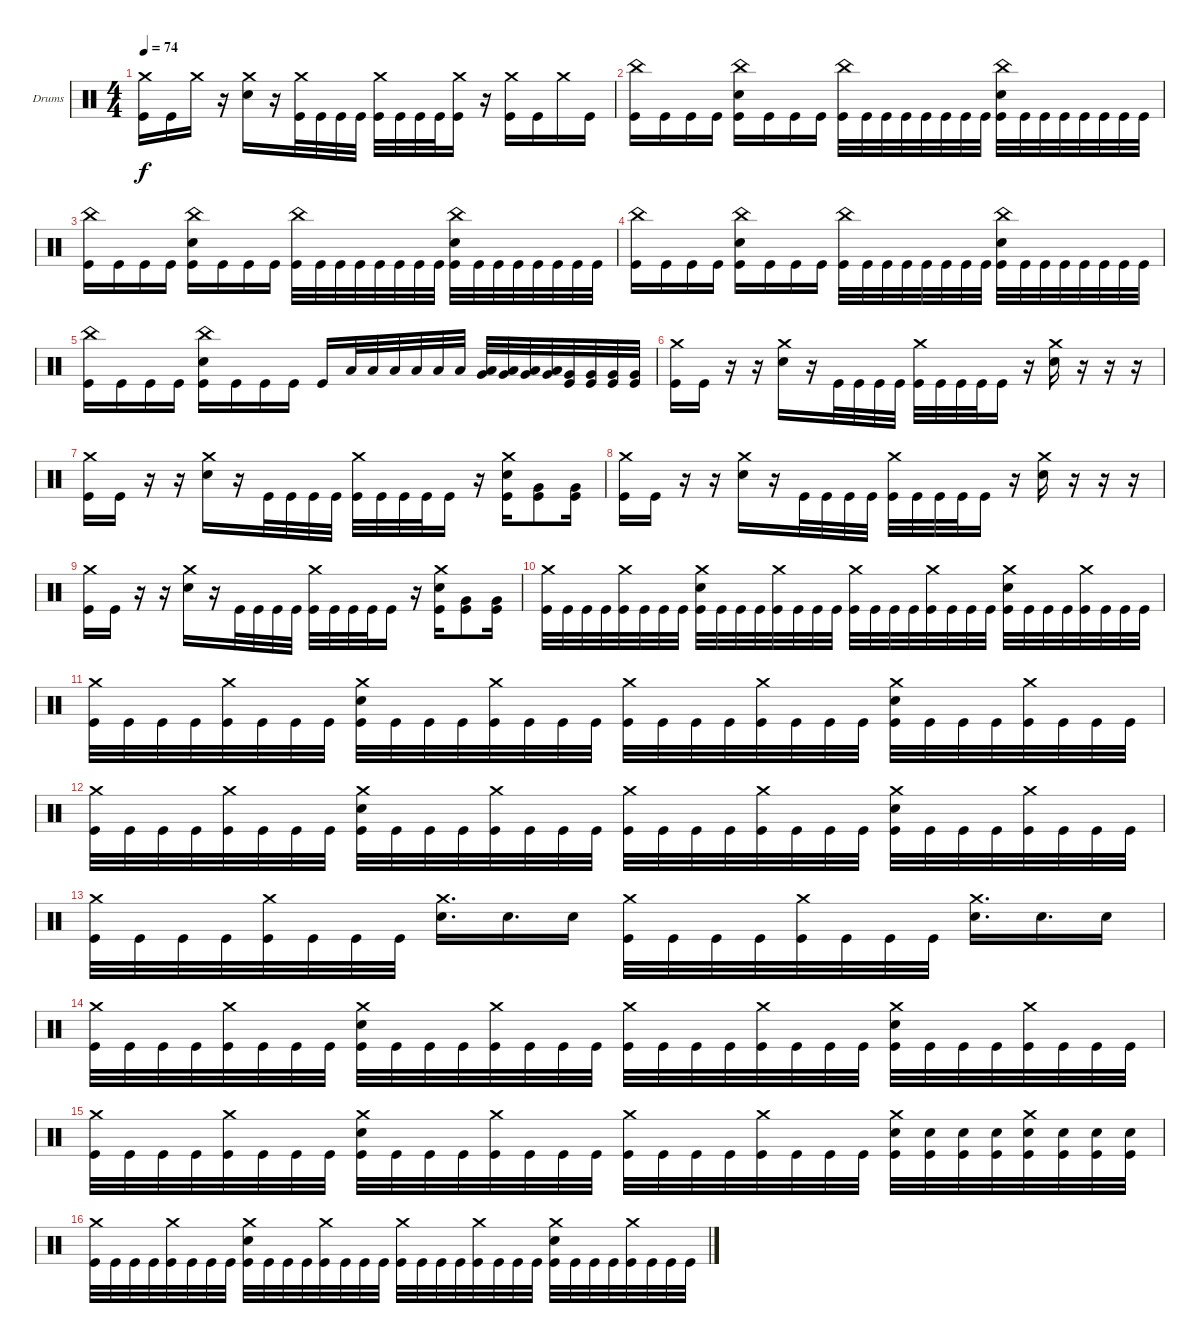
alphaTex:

\bracketExtendMode groupsimilarinstruments
\firstSystemTrackNameOrientation horizontal
\otherSystemsTrackNameOrientation horizontal
\track ("Drumkit" "Drums") {instrument percussion}
\staff {score}
\articulation defaults
\ts (4 4)
\tempo 74
\clef neutral
\ks c
("Crash medium (hit)" "Kick (hit)").16{dy f} "Kick (hit)".16 "Crash medium (hit)".16 r.16 ("Crash medium (hit)" "Snare (hit) 2").16 r.16 ("Crash medium (hit)" "Kick (hit)").32 "Kick (hit)".32 "Kick (hit)".32 "Kick (hit)".32 ("Crash medium (hit)" "Kick (hit)").32 "Kick (hit)".32 "Kick (hit)".32 "Kick (hit)".32 ("Crash medium (hit)" "Kick (hit)").16 r.16 ("Crash medium (hit)" "Kick (hit)").16 "Kick (hit)".16 "Crash medium (hit)".16 "Kick (hit)".16 |
("China (hit)" "Kick (hit)").16 "Kick (hit)".16 "Kick (hit)".16 "Kick (hit)".16 ("China (hit)" "Snare (hit) 2" "Kick (hit)").16 "Kick (hit)".16 "Kick (hit)".16 "Kick (hit)".16 ("China (hit)" "Kick (hit)").32 "Kick (hit)".32 "Kick (hit)".32 "Kick (hit)".32 "Kick (hit)".32 "Kick (hit)".32 "Kick (hit)".32 "Kick (hit)".32 ("China (hit)" "Snare (hit) 2" "Kick (hit)").32 "Kick (hit)".32 "Kick (hit)".32 "Kick (hit)".32 "Kick (hit)".32 "Kick (hit)".32 "Kick (hit)".32 "Kick (hit)".32 |
("China (hit)" "Kick (hit)").16 "Kick (hit)".16 "Kick (hit)".16 "Kick (hit)".16 ("China (hit)" "Snare (hit) 2" "Kick (hit)").16 "Kick (hit)".16 "Kick (hit)".16 "Kick (hit)".16 ("China (hit)" "Kick (hit)").32 "Kick (hit)".32 "Kick (hit)".32 "Kick (hit)".32 "Kick (hit)".32 "Kick (hit)".32 "Kick (hit)".32 "Kick (hit)".32 ("China (hit)" "Snare (hit) 2" "Kick (hit)").32 "Kick (hit)".32 "Kick (hit)".32 "Kick (hit)".32 "Kick (hit)".32 "Kick (hit)".32 "Kick (hit)".32 "Kick (hit)".32 |
("China (hit)" "Kick (hit)").16 "Kick (hit)".16 "Kick (hit)".16 "Kick (hit)".16 ("China (hit)" "Snare (hit) 2" "Kick (hit)").16 "Kick (hit)".16 "Kick (hit)".16 "Kick (hit)".16 ("China (hit)" "Kick (hit)").32 "Kick (hit)".32 "Kick (hit)".32 "Kick (hit)".32 "Kick (hit)".32 "Kick (hit)".32 "Kick (hit)".32 "Kick (hit)".32 ("China (hit)" "Snare (hit) 2" "Kick (hit)").32 "Kick (hit)".32 "Kick (hit)".32 "Kick (hit)".32 "Kick (hit)".32 "Kick (hit)".32 "Kick (hit)".32 "Kick (hit)".32 |
("China (hit)" "Kick (hit)").16 "Kick (hit)".16 "Kick (hit)".16 "Kick (hit)".16 ("China (hit)" "Snare (hit) 2" "Kick (hit)").16 "Kick (hit)".16 "Kick (hit)".16 "Kick (hit)".16 "Kick (hit)".16 "Low Tom (hit)".32 "Low Tom (hit)".32 "Low Tom (hit)".32 "Low Tom (hit)".32 "Low Tom (hit)".32 "Low Tom (hit)".32 ("Low Tom (hit)" "Very Low Tom (hit)").32 ("Low Tom (hit)" "Very Low Tom (hit)").32 ("Low Tom (hit)" "Very Low Tom (hit)").32 ("Low Tom (hit)" "Very Low Tom (hit)").32 ("Very Low Tom (hit)" "Kick (hit)").32 ("Very Low Tom (hit)" "Kick (hit)").32 ("Very Low Tom (hit)" "Kick (hit)").32 ("Very Low Tom (hit)" "Kick (hit)").32 |
("Crash medium (hit)" "Kick (hit)").16 "Kick (hit)".16 r.16 r.16 ("Crash medium (hit)" "Snare (hit) 2").16 r.16 "Kick (hit)".32 "Kick (hit)".32 "Kick (hit)".32 "Kick (hit)".32 ("Crash medium (hit)" "Kick (hit)").32 "Kick (hit)".32 "Kick (hit)".32 "Kick (hit)".32 "Kick (hit)".16 r.16 ("Crash medium (hit)" "Snare (hit) 2").16 r.16 r.16 r.16 |
("Crash medium (hit)" "Kick (hit)").16 "Kick (hit)".16 r.16 r.16 ("Crash medium (hit)" "Snare (hit) 2").16 r.16 "Kick (hit)".32 "Kick (hit)".32 "Kick (hit)".32 "Kick (hit)".32 ("Crash medium (hit)" "Kick (hit)").32 "Kick (hit)".32 "Kick (hit)".32 "Kick (hit)".32 "Kick (hit)".16 r.16 ("Crash medium (hit)" "Snare (hit) 2" "Kick (hit)").16 ("Very Low Tom (hit)" "Kick (hit)").8 ("Very Low Tom (hit)" "Kick (hit)").16 |
("Crash medium (hit)" "Kick (hit)").16 "Kick (hit)".16 r.16 r.16 ("Crash medium (hit)" "Snare (hit) 2").16 r.16 "Kick (hit)".32 "Kick (hit)".32 "Kick (hit)".32 "Kick (hit)".32 ("Crash medium (hit)" "Kick (hit)").32 "Kick (hit)".32 "Kick (hit)".32 "Kick (hit)".32 "Kick (hit)".16 r.16 ("Crash medium (hit)" "Snare (hit) 2").16 r.16 r.16 r.16 |
("Crash medium (hit)" "Kick (hit)").16 "Kick (hit)".16 r.16 r.16 ("Crash medium (hit)" "Snare (hit) 2").16 r.16 "Kick (hit)".32 "Kick (hit)".32 "Kick (hit)".32 "Kick (hit)".32 ("Crash medium (hit)" "Kick (hit)").32 "Kick (hit)".32 "Kick (hit)".32 "Kick (hit)".32 "Kick (hit)".16 r.16 ("Crash medium (hit)" "Snare (hit) 2" "Kick (hit)").16 ("Very Low Tom (hit)" "Kick (hit)").8 ("Very Low Tom (hit)" "Kick (hit)").16 |
("Crash medium (hit)" "Kick (hit)").32 "Kick (hit)".32 "Kick (hit)".32 "Kick (hit)".32 ("Crash medium (hit)" "Kick (hit)").32 "Kick (hit)".32 "Kick (hit)".32 "Kick (hit)".32 ("Crash medium (hit)" "Snare (hit) 2" "Kick (hit)").32 "Kick (hit)".32 "Kick (hit)".32 "Kick (hit)".32 ("Crash medium (hit)" "Kick (hit)").32 "Kick (hit)".32 "Kick (hit)".32 "Kick (hit)".32 ("Crash medium (hit)" "Kick (hit)").32 "Kick (hit)".32 "Kick (hit)".32 "Kick (hit)".32 ("Crash medium (hit)" "Kick (hit)").32 "Kick (hit)".32 "Kick (hit)".32 "Kick (hit)".32 ("Crash medium (hit)" "Snare (hit) 2" "Kick (hit)").32 "Kick (hit)".32 "Kick (hit)".32 "Kick (hit)".32 ("Crash medium (hit)" "Kick (hit)").32 "Kick (hit)".32 "Kick (hit)".32 "Kick (hit)".32 |
("Crash medium (hit)" "Kick (hit)").32 "Kick (hit)".32 "Kick (hit)".32 "Kick (hit)".32 ("Crash medium (hit)" "Kick (hit)").32 "Kick (hit)".32 "Kick (hit)".32 "Kick (hit)".32 ("Crash medium (hit)" "Snare (hit) 2" "Kick (hit)").32 "Kick (hit)".32 "Kick (hit)".32 "Kick (hit)".32 ("Crash medium (hit)" "Kick (hit)").32 "Kick (hit)".32 "Kick (hit)".32 "Kick (hit)".32 ("Crash medium (hit)" "Kick (hit)").32 "Kick (hit)".32 "Kick (hit)".32 "Kick (hit)".32 ("Crash medium (hit)" "Kick (hit)").32 "Kick (hit)".32 "Kick (hit)".32 "Kick (hit)".32 ("Crash medium (hit)" "Snare (hit) 2" "Kick (hit)").32 "Kick (hit)".32 "Kick (hit)".32 "Kick (hit)".32 ("Crash medium (hit)" "Kick (hit)").32 "Kick (hit)".32 "Kick (hit)".32 "Kick (hit)".32 |
("Crash medium (hit)" "Kick (hit)").32 "Kick (hit)".32 "Kick (hit)".32 "Kick (hit)".32 ("Crash medium (hit)" "Kick (hit)").32 "Kick (hit)".32 "Kick (hit)".32 "Kick (hit)".32 ("Crash medium (hit)" "Snare (hit) 2" "Kick (hit)").32 "Kick (hit)".32 "Kick (hit)".32 "Kick (hit)".32 ("Crash medium (hit)" "Kick (hit)").32 "Kick (hit)".32 "Kick (hit)".32 "Kick (hit)".32 ("Crash medium (hit)" "Kick (hit)").32 "Kick (hit)".32 "Kick (hit)".32 "Kick (hit)".32 ("Crash medium (hit)" "Kick (hit)").32 "Kick (hit)".32 "Kick (hit)".32 "Kick (hit)".32 ("Crash medium (hit)" "Snare (hit) 2" "Kick (hit)").32 "Kick (hit)".32 "Kick (hit)".32 "Kick (hit)".32 ("Crash medium (hit)" "Kick (hit)").32 "Kick (hit)".32 "Kick (hit)".32 "Kick (hit)".32 |
("Crash medium (hit)" "Kick (hit)").32 "Kick (hit)".32 "Kick (hit)".32 "Kick (hit)".32 ("Crash medium (hit)" "Kick (hit)").32 "Kick (hit)".32 "Kick (hit)".32 "Kick (hit)".32 ("Crash medium (hit)" "Snare (hit) 2").16{d} "Snare (hit) 2".16{d} "Snare (hit) 2".16 ("Crash medium (hit)" "Kick (hit)").32 "Kick (hit)".32 "Kick (hit)".32 "Kick (hit)".32 ("Crash medium (hit)" "Kick (hit)").32 "Kick (hit)".32 "Kick (hit)".32 "Kick (hit)".32 ("Crash medium (hit)" "Snare (hit) 2").16{d} "Snare (hit) 2".16{d} "Snare (hit) 2".16 |
("Crash medium (hit)" "Kick (hit)").32 "Kick (hit)".32 "Kick (hit)".32 "Kick (hit)".32 ("Crash medium (hit)" "Kick (hit)").32 "Kick (hit)".32 "Kick (hit)".32 "Kick (hit)".32 ("Crash medium (hit)" "Snare (hit) 2" "Kick (hit)").32 "Kick (hit)".32 "Kick (hit)".32 "Kick (hit)".32 ("Crash medium (hit)" "Kick (hit)").32 "Kick (hit)".32 "Kick (hit)".32 "Kick (hit)".32 ("Crash medium (hit)" "Kick (hit)").32 "Kick (hit)".32 "Kick (hit)".32 "Kick (hit)".32 ("Crash medium (hit)" "Kick (hit)").32 "Kick (hit)".32 "Kick (hit)".32 "Kick (hit)".32 ("Crash medium (hit)" "Snare (hit) 2" "Kick (hit)").32 "Kick (hit)".32 "Kick (hit)".32 "Kick (hit)".32 ("Crash medium (hit)" "Kick (hit)").32 "Kick (hit)".32 "Kick (hit)".32 "Kick (hit)".32 |
("Crash medium (hit)" "Kick (hit)").32 "Kick (hit)".32 "Kick (hit)".32 "Kick (hit)".32 ("Crash medium (hit)" "Kick (hit)").32 "Kick (hit)".32 "Kick (hit)".32 "Kick (hit)".32 ("Crash medium (hit)" "Snare (hit) 2" "Kick (hit)").32 "Kick (hit)".32 "Kick (hit)".32 "Kick (hit)".32 ("Crash medium (hit)" "Kick (hit)").32 "Kick (hit)".32 "Kick (hit)".32 "Kick (hit)".32 ("Crash medium (hit)" "Kick (hit)").32 "Kick (hit)".32 "Kick (hit)".32 "Kick (hit)".32 ("Crash medium (hit)" "Kick (hit)").32 "Kick (hit)".32 "Kick (hit)".32 "Kick (hit)".32 ("Crash medium (hit)" "Snare (hit) 2" "Kick (hit)").32 ("Snare (hit) 2" "Kick (hit)").32 ("Snare (hit) 2" "Kick (hit)").32 ("Snare (hit) 2" "Kick (hit)").32 ("Crash medium (hit)" "Snare (hit) 2" "Kick (hit)").32 ("Snare (hit) 2" "Kick (hit)").32 ("Snare (hit) 2" "Kick (hit)").32 ("Snare (hit) 2" "Kick (hit)").32 |
("Crash medium (hit)" "Kick (hit)").32 "Kick (hit)".32 "Kick (hit)".32 "Kick (hit)".32 ("Crash medium (hit)" "Kick (hit)").32 "Kick (hit)".32 "Kick (hit)".32 "Kick (hit)".32 ("Crash medium (hit)" "Snare (hit) 2" "Kick (hit)").32 "Kick (hit)".32 "Kick (hit)".32 "Kick (hit)".32 ("Crash medium (hit)" "Kick (hit)").32 "Kick (hit)".32 "Kick (hit)".32 "Kick (hit)".32 ("Crash medium (hit)" "Kick (hit)").32 "Kick (hit)".32 "Kick (hit)".32 "Kick (hit)".32 ("Crash medium (hit)" "Kick (hit)").32 "Kick (hit)".32 "Kick (hit)".32 "Kick (hit)".32 ("Crash medium (hit)" "Snare (hit) 2" "Kick (hit)").32 "Kick (hit)".32 "Kick (hit)".32 "Kick (hit)".32 ("Crash medium (hit)" "Kick (hit)").32 "Kick (hit)".32 "Kick (hit)".32 "Kick (hit)".32
